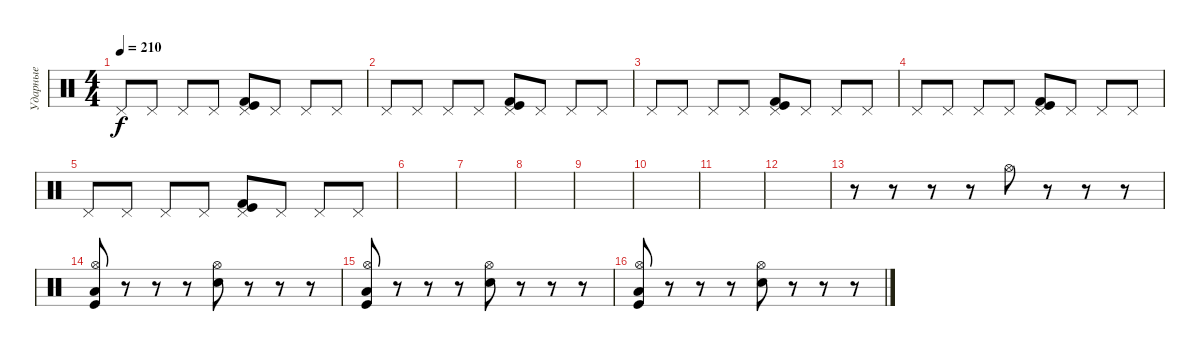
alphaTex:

\track ("Ударные" "Ударные") {instrument percussion}
\staff {score}
\articulation defaults
\ts (4 4)
\tempo 210
\clef neutral
\ks c "Pedal Hi-Hat (hit)".8{dy f} "Pedal Hi-Hat (hit)".8 "Pedal Hi-Hat (hit)".8 "Pedal Hi-Hat (hit)".8
("Pedal Hi-Hat (hit)" "Kick (hit)" "Kick (hit) 2").8 "Pedal Hi-Hat (hit)".8 "Pedal Hi-Hat (hit)".8 "Pedal Hi-Hat (hit)".8 |
"Pedal Hi-Hat (hit)".8 "Pedal Hi-Hat (hit)".8 "Pedal Hi-Hat (hit)".8 "Pedal Hi-Hat (hit)".8 ("Pedal Hi-Hat (hit)" "Kick (hit)" "Kick (hit) 2").8 "Pedal Hi-Hat (hit)".8 "Pedal Hi-Hat (hit)".8 "Pedal Hi-Hat (hit)".8 |
"Pedal Hi-Hat (hit)".8 "Pedal Hi-Hat (hit)".8 "Pedal Hi-Hat (hit)".8 "Pedal Hi-Hat (hit)".8 ("Pedal Hi-Hat (hit)" "Kick (hit)" "Kick (hit) 2").8 "Pedal Hi-Hat (hit)".8 "Pedal Hi-Hat (hit)".8 "Pedal Hi-Hat (hit)".8 |
"Pedal Hi-Hat (hit)".8 "Pedal Hi-Hat (hit)".8 "Pedal Hi-Hat (hit)".8 "Pedal Hi-Hat (hit)".8 ("Pedal Hi-Hat (hit)" "Kick (hit)" "Kick (hit) 2").8 "Pedal Hi-Hat (hit)".8 "Pedal Hi-Hat (hit)".8 "Pedal Hi-Hat (hit)".8 |
"Pedal Hi-Hat (hit)".8 "Pedal Hi-Hat (hit)".8 "Pedal Hi-Hat (hit)".8 "Pedal Hi-Hat (hit)".8 ("Pedal Hi-Hat (hit)" "Kick (hit)" "Kick (hit) 2").8 "Pedal Hi-Hat (hit)".8 "Pedal Hi-Hat (hit)".8 "Pedal Hi-Hat (hit)".8 |
|
|
|
|
|
|
|
r.8 r.8 r.8 r.8 "Hi-Hat (open)".8 r.8 r.8 r.8 |
("Hi-Hat (open)" "Low Tom (hit)" "Kick (hit)").8 r.8 r.8 r.8 ("Hi-Hat (open)" "Electric Snare (hit)").8 r.8 r.8 r.8 |
("Hi-Hat (open)" "Low Tom (hit)" "Kick (hit)").8 r.8 r.8 r.8 ("Hi-Hat (open)" "Electric Snare (hit)").8 r.8 r.8 r.8 |
("Hi-Hat (open)" "Low Tom (hit)" "Kick (hit)").8 r.8 r.8 r.8 ("Hi-Hat (open)" "Electric Snare (hit)").8 r.8 r.8 r.8
